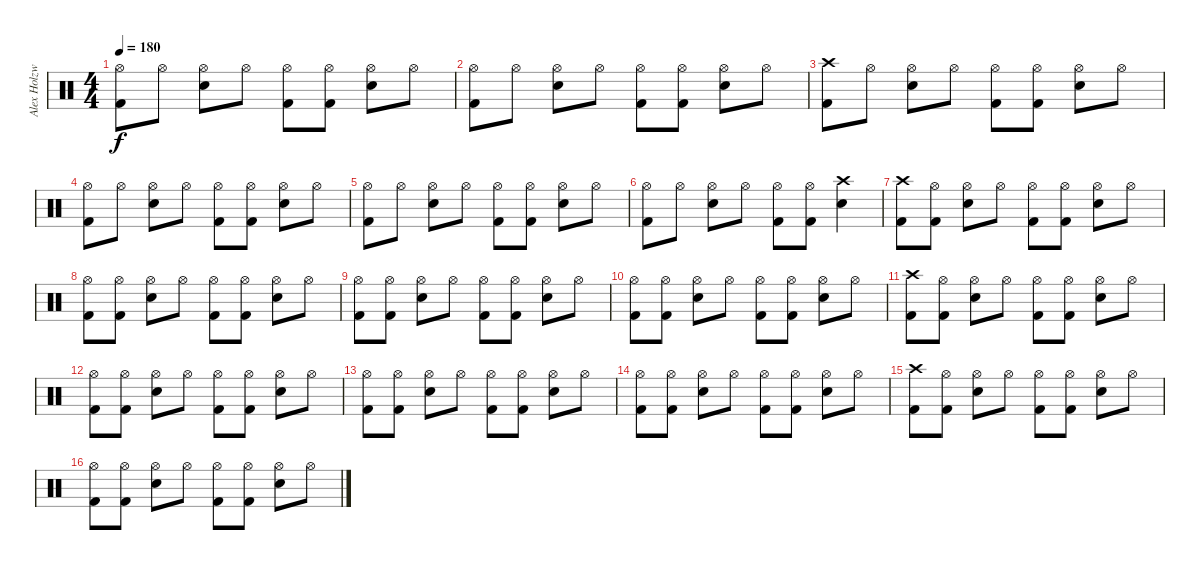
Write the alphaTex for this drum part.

\track ("Alex Holzwarth" "Alex Holzw") {instrument percussion}
\staff {score}
\articulation defaults
\ts (4 4)
\tempo 180
\clef neutral
\ks c
("Hi-Hat (open)" "Kick (hit) 2").8{dy f} "Hi-Hat (open)".8 ("Hi-Hat (open)" "Electric Snare (hit)").8 "Hi-Hat (open)".8 ("Hi-Hat (open)" "Kick (hit) 2").8 ("Hi-Hat (open)" "Kick (hit) 2").8 ("Hi-Hat (open)" "Electric Snare (hit)").8 "Hi-Hat (open)".8 |
("Hi-Hat (open)" "Kick (hit) 2").8 "Hi-Hat (open)".8 ("Hi-Hat (open)" "Electric Snare (hit)").8 "Hi-Hat (open)".8 ("Hi-Hat (open)" "Kick (hit) 2").8 ("Hi-Hat (open)" "Kick (hit) 2").8 ("Hi-Hat (open)" "Electric Snare (hit)").8 "Hi-Hat (open)".8 |
("Crash high (hit)" "Kick (hit) 2").8 "Hi-Hat (open)".8 ("Hi-Hat (open)" "Electric Snare (hit)").8 "Hi-Hat (open)".8 ("Hi-Hat (open)" "Kick (hit) 2").8 ("Hi-Hat (open)" "Kick (hit) 2").8 ("Hi-Hat (open)" "Electric Snare (hit)").8 "Hi-Hat (open)".8 |
("Hi-Hat (open)" "Kick (hit) 2").8 "Hi-Hat (open)".8 ("Hi-Hat (open)" "Electric Snare (hit)").8 "Hi-Hat (open)".8 ("Hi-Hat (open)" "Kick (hit) 2").8 ("Hi-Hat (open)" "Kick (hit) 2").8 ("Hi-Hat (open)" "Electric Snare (hit)").8 "Hi-Hat (open)".8 |
("Hi-Hat (open)" "Kick (hit) 2").8 "Hi-Hat (open)".8 ("Hi-Hat (open)" "Electric Snare (hit)").8 "Hi-Hat (open)".8 ("Hi-Hat (open)" "Kick (hit) 2").8 ("Hi-Hat (open)" "Kick (hit) 2").8 ("Hi-Hat (open)" "Electric Snare (hit)").8 "Hi-Hat (open)".8 |
("Hi-Hat (open)" "Kick (hit) 2").8 "Hi-Hat (open)".8 ("Hi-Hat (open)" "Electric Snare (hit)").8 "Hi-Hat (open)".8 ("Hi-Hat (open)" "Kick (hit) 2").8 ("Hi-Hat (open)" "Kick (hit) 2").8 ("Crash high (hit)" "Electric Snare (hit)").4 |
("Crash high (hit)" "Kick (hit) 2").8 ("Hi-Hat (open)" "Kick (hit) 2").8 ("Hi-Hat (open)" "Electric Snare (hit)").8 "Hi-Hat (open)".8 ("Hi-Hat (open)" "Kick (hit) 2").8 ("Hi-Hat (open)" "Kick (hit) 2").8 ("Hi-Hat (open)" "Electric Snare (hit)").8 "Hi-Hat (open)".8 |
("Hi-Hat (open)" "Kick (hit) 2").8 ("Hi-Hat (open)" "Kick (hit) 2").8 ("Hi-Hat (open)" "Electric Snare (hit)").8 "Hi-Hat (open)".8 ("Hi-Hat (open)" "Kick (hit) 2").8 ("Hi-Hat (open)" "Kick (hit) 2").8 ("Hi-Hat (open)" "Electric Snare (hit)").8 "Hi-Hat (open)".8 |
("Hi-Hat (open)" "Kick (hit) 2").8 ("Hi-Hat (open)" "Kick (hit) 2").8 ("Hi-Hat (open)" "Electric Snare (hit)").8 "Hi-Hat (open)".8 ("Hi-Hat (open)" "Kick (hit) 2").8 ("Hi-Hat (open)" "Kick (hit) 2").8 ("Hi-Hat (open)" "Electric Snare (hit)").8 "Hi-Hat (open)".8 |
("Hi-Hat (open)" "Kick (hit) 2").8 ("Hi-Hat (open)" "Kick (hit) 2").8 ("Hi-Hat (open)" "Electric Snare (hit)").8 "Hi-Hat (open)".8 ("Hi-Hat (open)" "Kick (hit) 2").8 ("Hi-Hat (open)" "Kick (hit) 2").8 ("Hi-Hat (open)" "Electric Snare (hit)").8 "Hi-Hat (open)".8 |
("Crash high (hit)" "Kick (hit) 2").8 ("Hi-Hat (open)" "Kick (hit) 2").8 ("Hi-Hat (open)" "Electric Snare (hit)").8 "Hi-Hat (open)".8 ("Hi-Hat (open)" "Kick (hit) 2").8 ("Hi-Hat (open)" "Kick (hit) 2").8 ("Hi-Hat (open)" "Electric Snare (hit)").8 "Hi-Hat (open)".8 |
("Hi-Hat (open)" "Kick (hit) 2").8 ("Hi-Hat (open)" "Kick (hit) 2").8 ("Hi-Hat (open)" "Electric Snare (hit)").8 "Hi-Hat (open)".8 ("Hi-Hat (open)" "Kick (hit) 2").8 ("Hi-Hat (open)" "Kick (hit) 2").8 ("Hi-Hat (open)" "Electric Snare (hit)").8 "Hi-Hat (open)".8 |
("Hi-Hat (open)" "Kick (hit) 2").8 ("Hi-Hat (open)" "Kick (hit) 2").8 ("Hi-Hat (open)" "Electric Snare (hit)").8 "Hi-Hat (open)".8 ("Hi-Hat (open)" "Kick (hit) 2").8 ("Hi-Hat (open)" "Kick (hit) 2").8 ("Hi-Hat (open)" "Electric Snare (hit)").8 "Hi-Hat (open)".8 |
("Hi-Hat (open)" "Kick (hit) 2").8 ("Hi-Hat (open)" "Kick (hit) 2").8 ("Hi-Hat (open)" "Electric Snare (hit)").8 "Hi-Hat (open)".8 ("Hi-Hat (open)" "Kick (hit) 2").8 ("Hi-Hat (open)" "Kick (hit) 2").8 ("Hi-Hat (open)" "Electric Snare (hit)").8 "Hi-Hat (open)".8 |
("Crash high (hit)" "Kick (hit) 2").8 ("Hi-Hat (open)" "Kick (hit) 2").8 ("Hi-Hat (open)" "Electric Snare (hit)").8 "Hi-Hat (open)".8 ("Hi-Hat (open)" "Kick (hit) 2").8 ("Hi-Hat (open)" "Kick (hit) 2").8 ("Hi-Hat (open)" "Electric Snare (hit)").8 "Hi-Hat (open)".8 |
("Hi-Hat (open)" "Kick (hit) 2").8 ("Hi-Hat (open)" "Kick (hit) 2").8 ("Hi-Hat (open)" "Electric Snare (hit)").8 "Hi-Hat (open)".8 ("Hi-Hat (open)" "Kick (hit) 2").8 ("Hi-Hat (open)" "Kick (hit) 2").8 ("Hi-Hat (open)" "Electric Snare (hit)").8 "Hi-Hat (open)".8
